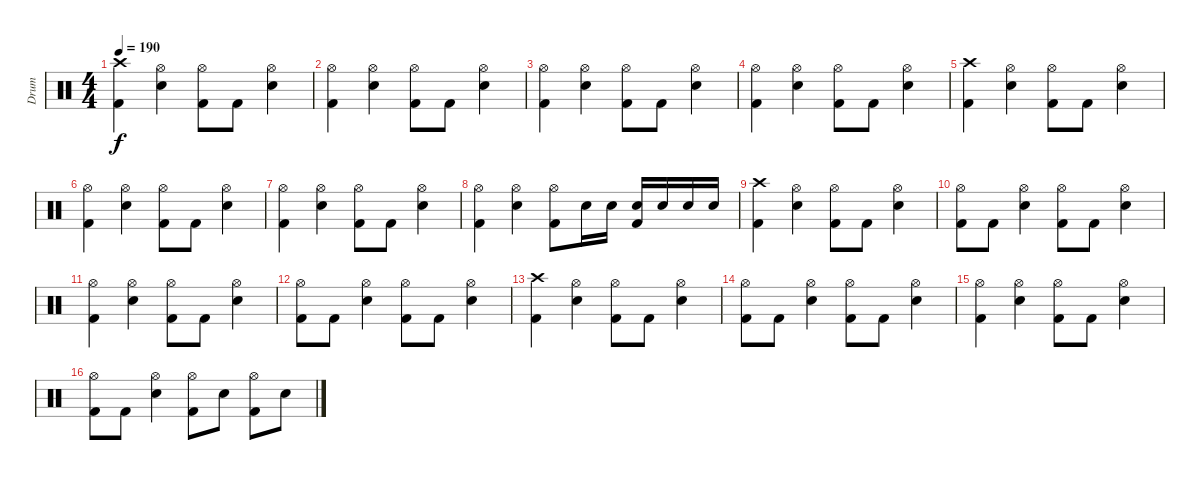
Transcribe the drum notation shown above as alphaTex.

\track ("Drum" "Drum") {instrument percussion}
\staff {score}
\articulation defaults
\ts (4 4)
\tempo 190
\clef neutral
\ks c
("Crash high (hit)" "Kick (hit) 2").4{dy f} ("Hi-Hat (open)" "Electric Snare (hit)").4 ("Hi-Hat (open)" "Kick (hit) 2").8 "Kick (hit) 2".8 ("Hi-Hat (open)" "Electric Snare (hit)").4 |
("Hi-Hat (open)" "Kick (hit) 2").4 ("Hi-Hat (open)" "Electric Snare (hit)").4 ("Hi-Hat (open)" "Kick (hit) 2").8 "Kick (hit) 2".8 ("Hi-Hat (open)" "Electric Snare (hit)").4 |
("Hi-Hat (open)" "Kick (hit) 2").4 ("Hi-Hat (open)" "Electric Snare (hit)").4 ("Hi-Hat (open)" "Kick (hit) 2").8 "Kick (hit) 2".8 ("Hi-Hat (open)" "Electric Snare (hit)").4 |
("Hi-Hat (open)" "Kick (hit) 2").4 ("Hi-Hat (open)" "Electric Snare (hit)").4 ("Hi-Hat (open)" "Kick (hit) 2").8 "Kick (hit) 2".8 ("Hi-Hat (open)" "Electric Snare (hit)").4 |
("Crash high (hit)" "Kick (hit) 2").4 ("Hi-Hat (open)" "Electric Snare (hit)").4 ("Hi-Hat (open)" "Kick (hit) 2").8 "Kick (hit) 2".8 ("Hi-Hat (open)" "Electric Snare (hit)").4 |
("Hi-Hat (open)" "Kick (hit) 2").4 ("Hi-Hat (open)" "Electric Snare (hit)").4 ("Hi-Hat (open)" "Kick (hit) 2").8 "Kick (hit) 2".8 ("Hi-Hat (open)" "Electric Snare (hit)").4 |
("Hi-Hat (open)" "Kick (hit) 2").4 ("Hi-Hat (open)" "Electric Snare (hit)").4 ("Hi-Hat (open)" "Kick (hit) 2").8 "Kick (hit) 2".8 ("Hi-Hat (open)" "Electric Snare (hit)").4 |
("Hi-Hat (open)" "Kick (hit) 2").4 ("Hi-Hat (open)" "Electric Snare (hit)").4 ("Hi-Hat (open)" "Kick (hit) 2").8 "Electric Snare (hit)".16 "Electric Snare (hit)".16 ("Electric Snare (hit)" "Kick (hit) 2").16 "Electric Snare (hit)".16 "Electric Snare (hit)".16 "Electric Snare (hit)".16 |
("Crash high (hit)" "Kick (hit) 2").4 ("Hi-Hat (open)" "Electric Snare (hit)").4 ("Hi-Hat (open)" "Kick (hit) 2").8 "Kick (hit) 2".8 ("Hi-Hat (open)" "Electric Snare (hit)").4 |
("Hi-Hat (open)" "Kick (hit) 2").8 "Kick (hit) 2".8 ("Hi-Hat (open)" "Electric Snare (hit)").4 ("Hi-Hat (open)" "Kick (hit) 2").8 "Kick (hit) 2".8 ("Hi-Hat (open)" "Electric Snare (hit)").4 |
("Hi-Hat (open)" "Kick (hit) 2").4 ("Hi-Hat (open)" "Electric Snare (hit)").4 ("Hi-Hat (open)" "Kick (hit) 2").8 "Kick (hit) 2".8 ("Hi-Hat (open)" "Electric Snare (hit)").4 |
("Hi-Hat (open)" "Kick (hit) 2").8 "Kick (hit) 2".8 ("Hi-Hat (open)" "Electric Snare (hit)").4 ("Hi-Hat (open)" "Kick (hit) 2").8 "Kick (hit) 2".8 ("Hi-Hat (open)" "Electric Snare (hit)").4 |
("Crash high (hit)" "Kick (hit) 2").4 ("Hi-Hat (open)" "Electric Snare (hit)").4 ("Hi-Hat (open)" "Kick (hit) 2").8 "Kick (hit) 2".8 ("Hi-Hat (open)" "Electric Snare (hit)").4 |
("Hi-Hat (open)" "Kick (hit) 2").8 "Kick (hit) 2".8 ("Hi-Hat (open)" "Electric Snare (hit)").4 ("Hi-Hat (open)" "Kick (hit) 2").8 "Kick (hit) 2".8 ("Hi-Hat (open)" "Electric Snare (hit)").4 |
("Hi-Hat (open)" "Kick (hit) 2").4 ("Hi-Hat (open)" "Electric Snare (hit)").4 ("Hi-Hat (open)" "Kick (hit) 2").8 "Kick (hit) 2".8 ("Hi-Hat (open)" "Electric Snare (hit)").4 |
("Hi-Hat (open)" "Kick (hit) 2").8 "Kick (hit) 2".8 ("Hi-Hat (open)" "Electric Snare (hit)").4 ("Hi-Hat (open)" "Kick (hit) 2").8 "Electric Snare (hit)".8 ("Hi-Hat (open)" "Kick (hit) 2").8 "Electric Snare (hit)".8
